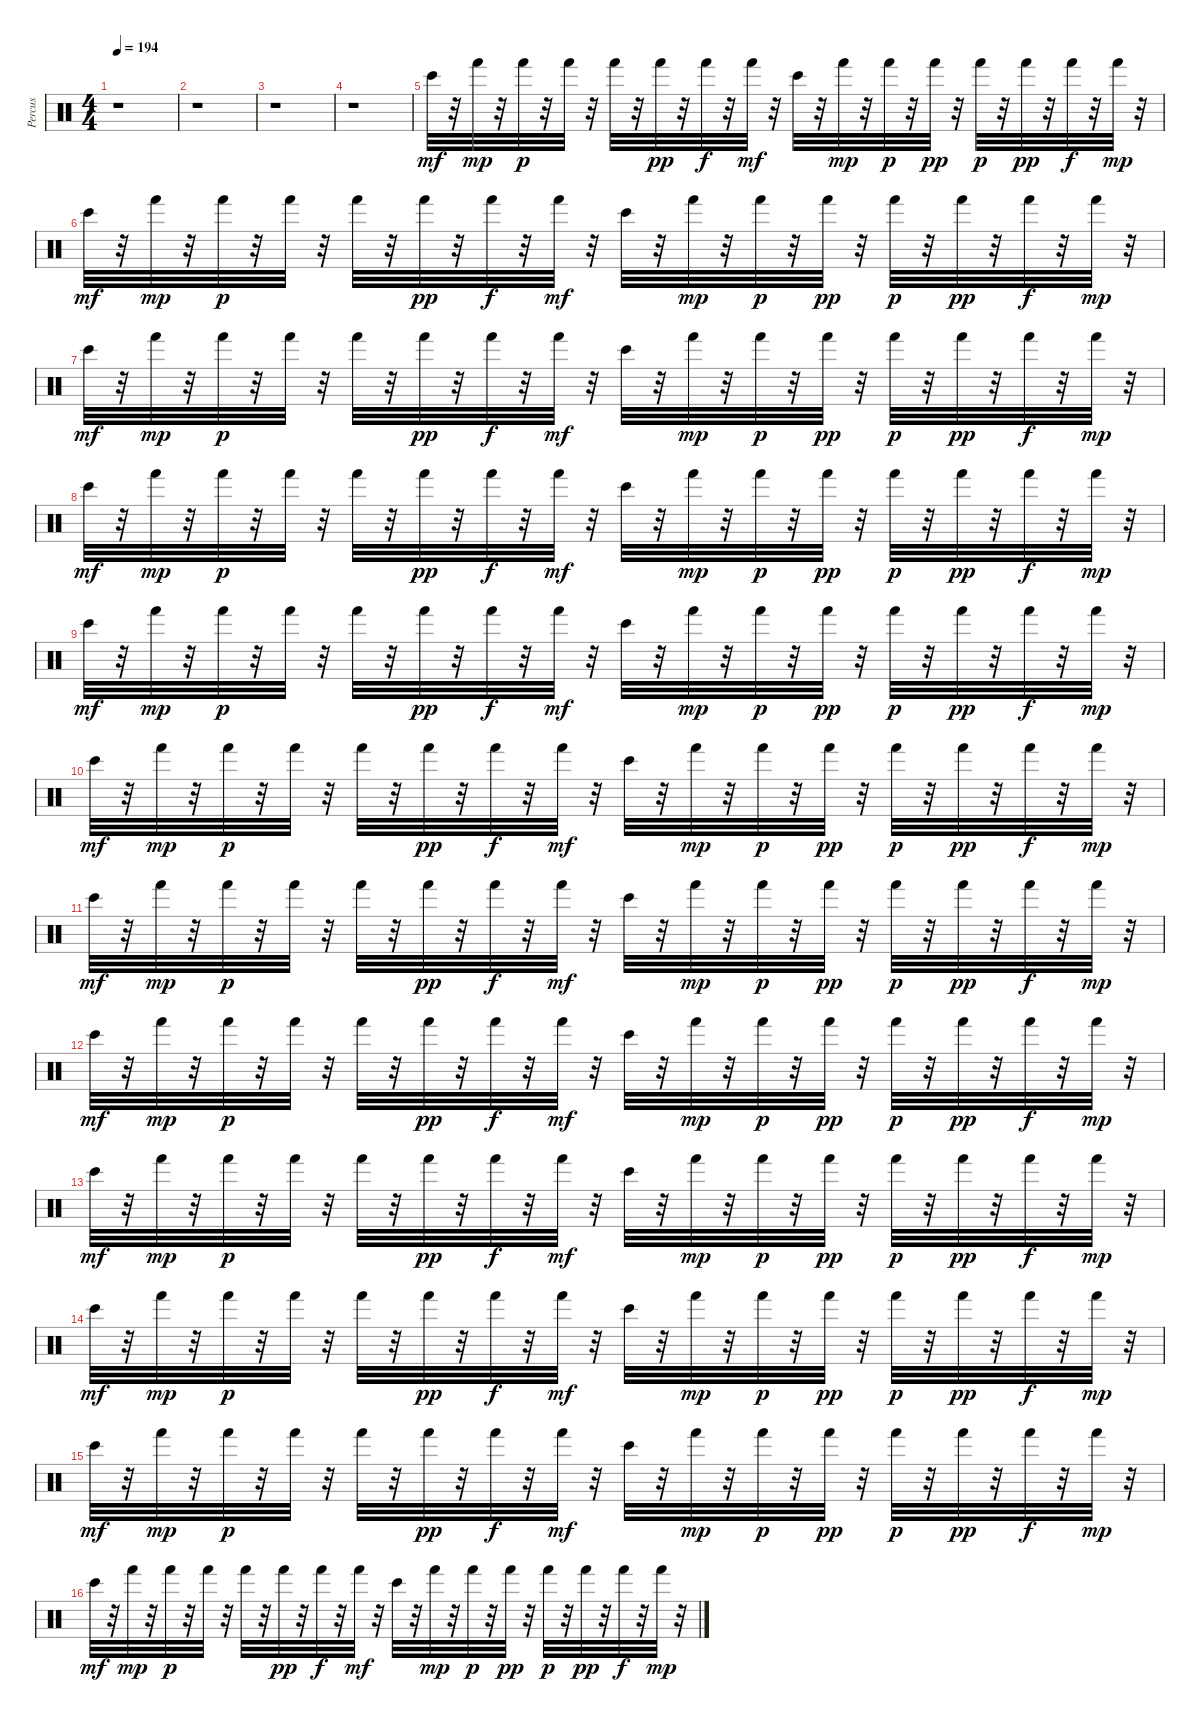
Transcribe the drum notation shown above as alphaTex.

\track ("Percus" "Percus") {instrument percussion}
\staff {score}
\articulation defaults
\ts (4 4)
\tempo 194
\clef neutral
\ks c
r.1{dy ppp} |
r.1 |
r.1 |
r.1 |
"Bongo High (hit)".32{dy mf} r.32 "Hand (hit)".32{dy mp} r.32 "Hand (hit)".32{dy p} r.32 "Hand (hit)".32 r.32 "Hand (hit)".32 r.32 "Hand (hit)".32{dy pp} r.32 "Hand (hit)".32{dy f} r.32 "Hand (hit)".32{dy mf} r.32 "Bongo High (hit)".32 r.32 "Hand (hit)".32{dy mp} r.32 "Hand (hit)".32{dy p} r.32 "Hand (hit)".32{dy pp} r.32 "Hand (hit)".32{dy p} r.32 "Hand (hit)".32{dy pp} r.32 "Hand (hit)".32{dy f} r.32 "Hand (hit)".32{dy mp} r.32 |
"Bongo High (hit)".32{dy mf} r.32 "Hand (hit)".32{dy mp} r.32 "Hand (hit)".32{dy p} r.32 "Hand (hit)".32 r.32 "Hand (hit)".32 r.32 "Hand (hit)".32{dy pp} r.32 "Hand (hit)".32{dy f} r.32 "Hand (hit)".32{dy mf} r.32 "Bongo High (hit)".32 r.32 "Hand (hit)".32{dy mp} r.32 "Hand (hit)".32{dy p} r.32 "Hand (hit)".32{dy pp} r.32 "Hand (hit)".32{dy p} r.32 "Hand (hit)".32{dy pp} r.32 "Hand (hit)".32{dy f} r.32 "Hand (hit)".32{dy mp} r.32 |
"Bongo High (hit)".32{dy mf} r.32 "Hand (hit)".32{dy mp} r.32 "Hand (hit)".32{dy p} r.32 "Hand (hit)".32 r.32 "Hand (hit)".32 r.32 "Hand (hit)".32{dy pp} r.32 "Hand (hit)".32{dy f} r.32 "Hand (hit)".32{dy mf} r.32 "Bongo High (hit)".32 r.32 "Hand (hit)".32{dy mp} r.32 "Hand (hit)".32{dy p} r.32 "Hand (hit)".32{dy pp} r.32 "Hand (hit)".32{dy p} r.32 "Hand (hit)".32{dy pp} r.32 "Hand (hit)".32{dy f} r.32 "Hand (hit)".32{dy mp} r.32 |
"Bongo High (hit)".32{dy mf} r.32 "Hand (hit)".32{dy mp} r.32 "Hand (hit)".32{dy p} r.32 "Hand (hit)".32 r.32 "Hand (hit)".32 r.32 "Hand (hit)".32{dy pp} r.32 "Hand (hit)".32{dy f} r.32 "Hand (hit)".32{dy mf} r.32 "Bongo High (hit)".32 r.32 "Hand (hit)".32{dy mp} r.32 "Hand (hit)".32{dy p} r.32 "Hand (hit)".32{dy pp} r.32 "Hand (hit)".32{dy p} r.32 "Hand (hit)".32{dy pp} r.32 "Hand (hit)".32{dy f} r.32 "Hand (hit)".32{dy mp} r.32 |
"Bongo High (hit)".32{dy mf} r.32 "Hand (hit)".32{dy mp} r.32 "Hand (hit)".32{dy p} r.32 "Hand (hit)".32 r.32 "Hand (hit)".32 r.32 "Hand (hit)".32{dy pp} r.32 "Hand (hit)".32{dy f} r.32 "Hand (hit)".32{dy mf} r.32 "Bongo High (hit)".32 r.32 "Hand (hit)".32{dy mp} r.32 "Hand (hit)".32{dy p} r.32 "Hand (hit)".32{dy pp} r.32 "Hand (hit)".32{dy p} r.32 "Hand (hit)".32{dy pp} r.32 "Hand (hit)".32{dy f} r.32 "Hand (hit)".32{dy mp} r.32 |
"Bongo High (hit)".32{dy mf} r.32 "Hand (hit)".32{dy mp} r.32 "Hand (hit)".32{dy p} r.32 "Hand (hit)".32 r.32 "Hand (hit)".32 r.32 "Hand (hit)".32{dy pp} r.32 "Hand (hit)".32{dy f} r.32 "Hand (hit)".32{dy mf} r.32 "Bongo High (hit)".32 r.32 "Hand (hit)".32{dy mp} r.32 "Hand (hit)".32{dy p} r.32 "Hand (hit)".32{dy pp} r.32 "Hand (hit)".32{dy p} r.32 "Hand (hit)".32{dy pp} r.32 "Hand (hit)".32{dy f} r.32 "Hand (hit)".32{dy mp} r.32 |
"Bongo High (hit)".32{dy mf} r.32 "Hand (hit)".32{dy mp} r.32 "Hand (hit)".32{dy p} r.32 "Hand (hit)".32 r.32 "Hand (hit)".32 r.32 "Hand (hit)".32{dy pp} r.32 "Hand (hit)".32{dy f} r.32 "Hand (hit)".32{dy mf} r.32 "Bongo High (hit)".32 r.32 "Hand (hit)".32{dy mp} r.32 "Hand (hit)".32{dy p} r.32 "Hand (hit)".32{dy pp} r.32 "Hand (hit)".32{dy p} r.32 "Hand (hit)".32{dy pp} r.32 "Hand (hit)".32{dy f} r.32 "Hand (hit)".32{dy mp} r.32 |
"Bongo High (hit)".32{dy mf} r.32 "Hand (hit)".32{dy mp} r.32 "Hand (hit)".32{dy p} r.32 "Hand (hit)".32 r.32 "Hand (hit)".32 r.32 "Hand (hit)".32{dy pp} r.32 "Hand (hit)".32{dy f} r.32 "Hand (hit)".32{dy mf} r.32 "Bongo High (hit)".32 r.32 "Hand (hit)".32{dy mp} r.32 "Hand (hit)".32{dy p} r.32 "Hand (hit)".32{dy pp} r.32 "Hand (hit)".32{dy p} r.32 "Hand (hit)".32{dy pp} r.32 "Hand (hit)".32{dy f} r.32 "Hand (hit)".32{dy mp} r.32 |
"Bongo High (hit)".32{dy mf} r.32 "Hand (hit)".32{dy mp} r.32 "Hand (hit)".32{dy p} r.32 "Hand (hit)".32 r.32 "Hand (hit)".32 r.32 "Hand (hit)".32{dy pp} r.32 "Hand (hit)".32{dy f} r.32 "Hand (hit)".32{dy mf} r.32 "Bongo High (hit)".32 r.32 "Hand (hit)".32{dy mp} r.32 "Hand (hit)".32{dy p} r.32 "Hand (hit)".32{dy pp} r.32 "Hand (hit)".32{dy p} r.32 "Hand (hit)".32{dy pp} r.32 "Hand (hit)".32{dy f} r.32 "Hand (hit)".32{dy mp} r.32 |
"Bongo High (hit)".32{dy mf} r.32 "Hand (hit)".32{dy mp} r.32 "Hand (hit)".32{dy p} r.32 "Hand (hit)".32 r.32 "Hand (hit)".32 r.32 "Hand (hit)".32{dy pp} r.32 "Hand (hit)".32{dy f} r.32 "Hand (hit)".32{dy mf} r.32 "Bongo High (hit)".32 r.32 "Hand (hit)".32{dy mp} r.32 "Hand (hit)".32{dy p} r.32 "Hand (hit)".32{dy pp} r.32 "Hand (hit)".32{dy p} r.32 "Hand (hit)".32{dy pp} r.32 "Hand (hit)".32{dy f} r.32 "Hand (hit)".32{dy mp} r.32 |
"Bongo High (hit)".32{dy mf} r.32 "Hand (hit)".32{dy mp} r.32 "Hand (hit)".32{dy p} r.32 "Hand (hit)".32 r.32 "Hand (hit)".32 r.32 "Hand (hit)".32{dy pp} r.32 "Hand (hit)".32{dy f} r.32 "Hand (hit)".32{dy mf} r.32 "Bongo High (hit)".32 r.32 "Hand (hit)".32{dy mp} r.32 "Hand (hit)".32{dy p} r.32 "Hand (hit)".32{dy pp} r.32 "Hand (hit)".32{dy p} r.32 "Hand (hit)".32{dy pp} r.32 "Hand (hit)".32{dy f} r.32 "Hand (hit)".32{dy mp} r.32 |
"Bongo High (hit)".32{dy mf} r.32 "Hand (hit)".32{dy mp} r.32 "Hand (hit)".32{dy p} r.32 "Hand (hit)".32 r.32 "Hand (hit)".32 r.32 "Hand (hit)".32{dy pp} r.32 "Hand (hit)".32{dy f} r.32 "Hand (hit)".32{dy mf} r.32 "Bongo High (hit)".32 r.32 "Hand (hit)".32{dy mp} r.32 "Hand (hit)".32{dy p} r.32 "Hand (hit)".32{dy pp} r.32 "Hand (hit)".32{dy p} r.32 "Hand (hit)".32{dy pp} r.32 "Hand (hit)".32{dy f} r.32 "Hand (hit)".32{dy mp} r.32
